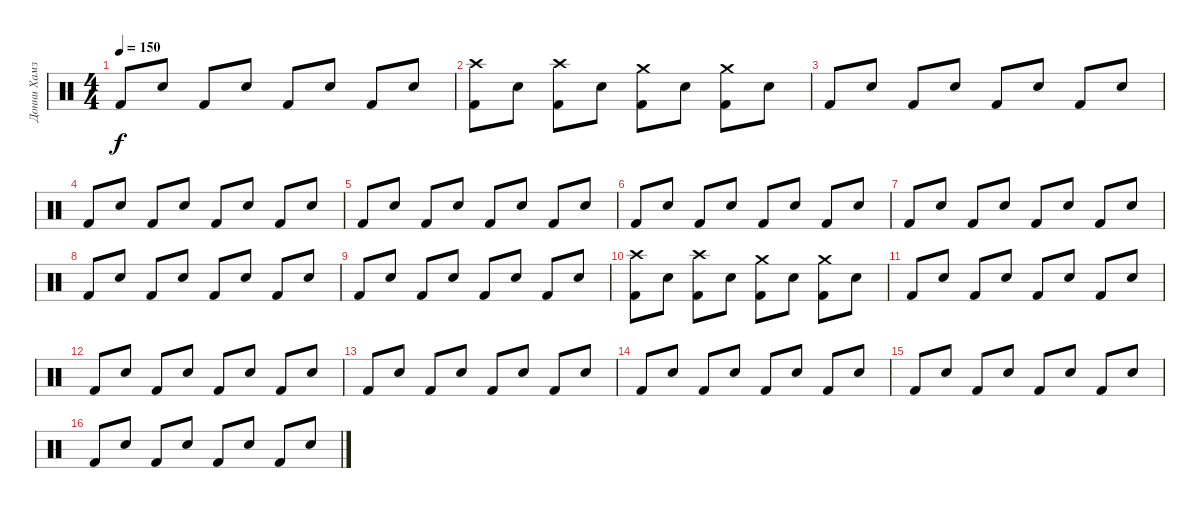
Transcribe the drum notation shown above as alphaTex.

\track ("Донни Хамзик" "Донни Хамз") {instrument percussion}
\staff {score}
\articulation defaults
\ts (4 4)
\tempo 150
\clef neutral
\ks c "Kick (hit) 2".8{dy f} "Snare (hit) 2".8 "Kick (hit) 2".8 "Snare (hit) 2".8 "Kick (hit) 2".8 "Snare (hit) 2".8 "Kick (hit) 2".8 "Snare (hit) 2".8
|
("Crash high (hit)" "Kick (hit) 2").8 "Snare (hit) 2".8 ("Crash high (hit)" "Kick (hit) 2").8 "Snare (hit) 2".8 ("Crash medium (hit)" "Kick (hit) 2").8 "Snare (hit) 2".8 ("Crash medium (hit)" "Kick (hit) 2").8 "Snare (hit) 2".8 |
"Kick (hit) 2".8 "Snare (hit) 2".8 "Kick (hit) 2".8 "Snare (hit) 2".8 "Kick (hit) 2".8 "Snare (hit) 2".8 "Kick (hit) 2".8 "Snare (hit) 2".8 |
"Kick (hit) 2".8 "Snare (hit) 2".8 "Kick (hit) 2".8 "Snare (hit) 2".8 "Kick (hit) 2".8 "Snare (hit) 2".8 "Kick (hit) 2".8 "Snare (hit) 2".8 |
"Kick (hit) 2".8 "Snare (hit) 2".8 "Kick (hit) 2".8 "Snare (hit) 2".8 "Kick (hit) 2".8 "Snare (hit) 2".8 "Kick (hit) 2".8 "Snare (hit) 2".8 |
"Kick (hit) 2".8 "Snare (hit) 2".8 "Kick (hit) 2".8 "Snare (hit) 2".8 "Kick (hit) 2".8 "Snare (hit) 2".8 "Kick (hit) 2".8 "Snare (hit) 2".8 |
"Kick (hit) 2".8 "Snare (hit) 2".8 "Kick (hit) 2".8 "Snare (hit) 2".8 "Kick (hit) 2".8 "Snare (hit) 2".8 "Kick (hit) 2".8 "Snare (hit) 2".8 |
"Kick (hit) 2".8 "Snare (hit) 2".8 "Kick (hit) 2".8 "Snare (hit) 2".8 "Kick (hit) 2".8 "Snare (hit) 2".8 "Kick (hit) 2".8 "Snare (hit) 2".8 |
"Kick (hit) 2".8 "Snare (hit) 2".8 "Kick (hit) 2".8 "Snare (hit) 2".8 "Kick (hit) 2".8 "Snare (hit) 2".8 "Kick (hit) 2".8 "Snare (hit) 2".8 |
("Crash high (hit)" "Kick (hit) 2").8 "Snare (hit) 2".8 ("Crash high (hit)" "Kick (hit) 2").8 "Snare (hit) 2".8 ("Crash medium (hit)" "Kick (hit) 2").8 "Snare (hit) 2".8 ("Crash medium (hit)" "Kick (hit) 2").8 "Snare (hit) 2".8 |
"Kick (hit) 2".8 "Snare (hit) 2".8 "Kick (hit) 2".8 "Snare (hit) 2".8 "Kick (hit) 2".8 "Snare (hit) 2".8 "Kick (hit) 2".8 "Snare (hit) 2".8 |
"Kick (hit) 2".8 "Snare (hit) 2".8 "Kick (hit) 2".8 "Snare (hit) 2".8 "Kick (hit) 2".8 "Snare (hit) 2".8 "Kick (hit) 2".8 "Snare (hit) 2".8 |
"Kick (hit) 2".8 "Snare (hit) 2".8 "Kick (hit) 2".8 "Snare (hit) 2".8 "Kick (hit) 2".8 "Snare (hit) 2".8 "Kick (hit) 2".8 "Snare (hit) 2".8 |
"Kick (hit) 2".8 "Snare (hit) 2".8 "Kick (hit) 2".8 "Snare (hit) 2".8 "Kick (hit) 2".8 "Snare (hit) 2".8 "Kick (hit) 2".8 "Snare (hit) 2".8 |
"Kick (hit) 2".8 "Snare (hit) 2".8 "Kick (hit) 2".8 "Snare (hit) 2".8 "Kick (hit) 2".8 "Snare (hit) 2".8 "Kick (hit) 2".8 "Snare (hit) 2".8 |
"Kick (hit) 2".8 "Snare (hit) 2".8 "Kick (hit) 2".8 "Snare (hit) 2".8 "Kick (hit) 2".8 "Snare (hit) 2".8 "Kick (hit) 2".8 "Snare (hit) 2".8
